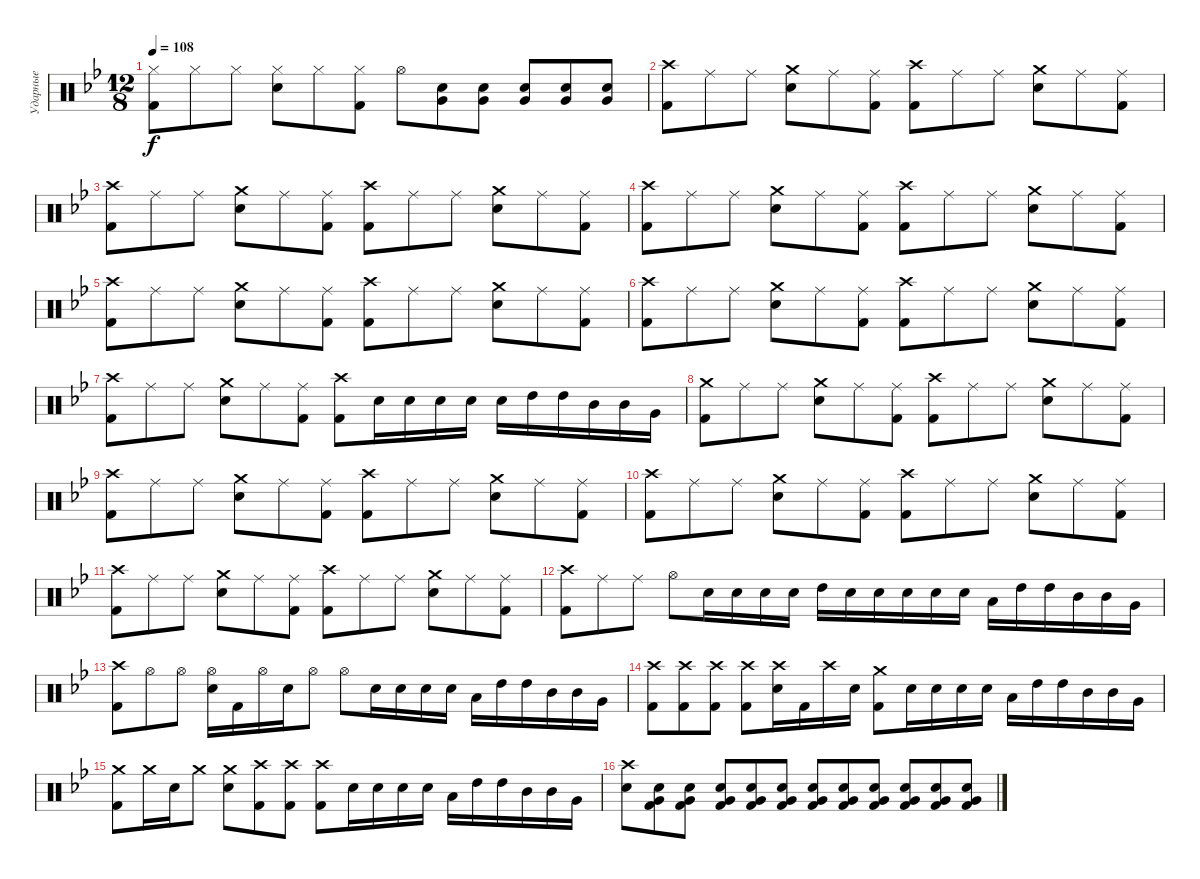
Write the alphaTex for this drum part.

\track ("Ударные" "Ударные") {instrument percussion}
\staff {score}
\articulation defaults
\ts (12 8)
\tempo 108
\clef neutral
\ks gminor
("Hi-Hat (closed)" "Kick (hit) 2").8{dy f} "Hi-Hat (closed)".8 "Hi-Hat (closed)".8 ("Hi-Hat (closed)" "Electric Snare (hit)").8 "Hi-Hat (closed)".8 ("Hi-Hat (closed)" "Kick (hit) 2").8 "Hi-Hat (open)".8 ("Electric Snare (hit)" "Very Low Tom (hit)").8 ("Electric Snare (hit)" "Very Low Tom (hit)").8 ("Electric Snare (hit)" "Very Low Tom (hit)").8 ("Electric Snare (hit)" "Very Low Tom (hit)").8 ("Electric Snare (hit)" "Very Low Tom (hit)").8 |
("Crash high (hit)" "Kick (hit) 2").8 "Ride (middle)".8 "Ride (middle)".8 ("Crash medium (hit)" "Electric Snare (hit)").8 "Ride (middle)".8 ("Ride (middle)" "Kick (hit) 2").8 ("Crash high (hit)" "Kick (hit) 2").8 "Ride (middle)".8 "Ride (middle)".8 ("Crash medium (hit)" "Electric Snare (hit)").8 "Ride (middle)".8 ("Ride (middle)" "Kick (hit) 2").8 |
("Crash high (hit)" "Kick (hit) 2").8 "Ride (middle)".8 "Ride (middle)".8 ("Crash medium (hit)" "Electric Snare (hit)").8 "Ride (middle)".8 ("Ride (middle)" "Kick (hit) 2").8 ("Crash high (hit)" "Kick (hit) 2").8 "Ride (middle)".8 "Ride (middle)".8 ("Crash medium (hit)" "Electric Snare (hit)").8 "Ride (middle)".8 ("Ride (middle)" "Kick (hit) 2").8 |
("Crash high (hit)" "Kick (hit) 2").8 "Ride (middle)".8 "Ride (middle)".8 ("Crash medium (hit)" "Electric Snare (hit)").8 "Ride (middle)".8 ("Ride (middle)" "Kick (hit) 2").8 ("Crash high (hit)" "Kick (hit) 2").8 "Ride (middle)".8 "Ride (middle)".8 ("Crash medium (hit)" "Electric Snare (hit)").8 "Ride (middle)".8 ("Ride (middle)" "Kick (hit) 2").8 |
("Crash high (hit)" "Kick (hit) 2").8 "Ride (middle)".8 "Ride (middle)".8 ("Crash medium (hit)" "Electric Snare (hit)").8 "Ride (middle)".8 ("Ride (middle)" "Kick (hit) 2").8 ("Crash high (hit)" "Kick (hit) 2").8 "Ride (middle)".8 "Ride (middle)".8 ("Crash medium (hit)" "Electric Snare (hit)").8 "Ride (middle)".8 ("Ride (middle)" "Kick (hit) 2").8 |
("Crash high (hit)" "Kick (hit) 2").8 "Ride (middle)".8 "Ride (middle)".8 ("Crash medium (hit)" "Electric Snare (hit)").8 "Ride (middle)".8 ("Ride (middle)" "Kick (hit) 2").8 ("Crash high (hit)" "Kick (hit) 2").8 "Ride (middle)".8 "Ride (middle)".8 ("Crash medium (hit)" "Electric Snare (hit)").8 "Ride (middle)".8 ("Ride (middle)" "Kick (hit) 2").8 |
("Crash high (hit)" "Kick (hit) 2").8 "Ride (middle)".8 "Ride (middle)".8 ("Crash medium (hit)" "Electric Snare (hit)").8 "Ride (middle)".8 ("Ride (middle)" "Kick (hit) 2").8 ("Crash high (hit)" "Kick (hit) 2").8 "Electric Snare (hit)".16 "Electric Snare (hit)".16 "Electric Snare (hit)".16 "Electric Snare (hit)".16 "Electric Snare (hit)".16 "High Tom (hit)".16 "High Tom (hit)".16 "Mid Tom (hit)".16 "Mid Tom (hit)".16 "Very Low Tom (hit)".16 |
("Crash medium (hit)" "Kick (hit) 2").8 "Ride (middle)".8 "Ride (middle)".8 ("Crash medium (hit)" "Electric Snare (hit)").8 "Ride (middle)".8 ("Ride (middle)" "Kick (hit) 2").8 ("Crash high (hit)" "Kick (hit) 2").8 "Ride (middle)".8 "Ride (middle)".8 ("Crash medium (hit)" "Electric Snare (hit)").8 "Ride (middle)".8 ("Ride (middle)" "Kick (hit) 2").8 |
("Crash high (hit)" "Kick (hit) 2").8 "Ride (middle)".8 "Ride (middle)".8 ("Crash medium (hit)" "Electric Snare (hit)").8 "Ride (middle)".8 ("Ride (middle)" "Kick (hit) 2").8 ("Crash high (hit)" "Kick (hit) 2").8 "Ride (middle)".8 "Ride (middle)".8 ("Crash medium (hit)" "Electric Snare (hit)").8 "Ride (middle)".8 ("Ride (middle)" "Kick (hit) 2").8 |
("Crash high (hit)" "Kick (hit) 2").8 "Ride (middle)".8 "Ride (middle)".8 ("Crash medium (hit)" "Electric Snare (hit)").8 "Ride (middle)".8 ("Ride (middle)" "Kick (hit) 2").8 ("Crash high (hit)" "Kick (hit) 2").8 "Ride (middle)".8 "Ride (middle)".8 ("Crash medium (hit)" "Electric Snare (hit)").8 "Ride (middle)".8 ("Ride (middle)" "Kick (hit) 2").8 |
("Crash high (hit)" "Kick (hit) 2").8 "Ride (middle)".8 "Ride (middle)".8 ("Crash medium (hit)" "Electric Snare (hit)").8 "Ride (middle)".8 ("Ride (middle)" "Kick (hit) 2").8 ("Crash high (hit)" "Kick (hit) 2").8 "Ride (middle)".8 "Ride (middle)".8 ("Crash medium (hit)" "Electric Snare (hit)").8 "Ride (middle)".8 ("Ride (middle)" "Kick (hit) 2").8 |
("Crash high (hit)" "Kick (hit) 2").8 "Ride (middle)".8 "Ride (middle)".8 "Hi-Hat (open)".8 "Electric Snare (hit)".16 "Electric Snare (hit)".16 "Electric Snare (hit)".16 "Electric Snare (hit)".16 "High Tom (hit)".16 "Electric Snare (hit)".16 "Electric Snare (hit)".16 "Electric Snare (hit)".16 "Electric Snare (hit)".16 "Electric Snare (hit)".16 "Low Tom (hit)".16 "High Tom (hit)".16 "High Tom (hit)".16 "Mid Tom (hit)".16 "Mid Tom (hit)".16 "Very Low Tom (hit)".16 |
("Crash high (hit)" "Kick (hit) 2").8 "Hi-Hat (open)".8 "Hi-Hat (open)".8 ("Hi-Hat (open)" "Electric Snare (hit)").16 "Kick (hit) 2".16 "Hi-Hat (open)".16 "Electric Snare (hit)".16 "Hi-Hat (open)".8 "Hi-Hat (open)".8 "Electric Snare (hit)".16 "Electric Snare (hit)".16 "Electric Snare (hit)".16 "Electric Snare (hit)".16 "Low Tom (hit)".16 "High Tom (hit)".16 "High Tom (hit)".16 "Mid Tom (hit)".16 "Mid Tom (hit)".16 "Very Low Tom (hit)".16 |
("Crash high (hit)" "Kick (hit) 2").8 ("Crash high (hit)" "Kick (hit) 2").8 ("Crash high (hit)" "Kick (hit) 2").8 ("Crash high (hit)" "Kick (hit) 2").8 ("Crash high (hit)" "Electric Snare (hit)").16 "Kick (hit) 2".16 "Crash high (hit)".16 "Electric Snare (hit)".16 ("Crash medium (hit)" "Kick (hit) 2").8 "Electric Snare (hit)".16 "Electric Snare (hit)".16 "Electric Snare (hit)".16 "Electric Snare (hit)".16 "Low Tom (hit)".16 "High Tom (hit)".16 "High Tom (hit)".16 "Mid Tom (hit)".16 "Mid Tom (hit)".16 "Very Low Tom (hit)".16 |
("Crash medium (hit)" "Kick (hit) 2").8 "Crash medium (hit)".16 "Electric Snare (hit)".16 "Crash medium (hit)".8 ("Crash medium (hit)" "Electric Snare (hit)").8 ("Crash high (hit)" "Kick (hit) 2").8 ("Crash high (hit)" "Kick (hit) 2").8 ("Crash high (hit)" "Kick (hit) 2").8 "Electric Snare (hit)".16 "Electric Snare (hit)".16 "Electric Snare (hit)".16 "Electric Snare (hit)".16 "Low Tom (hit)".16 "High Tom (hit)".16 "High Tom (hit)".16 "Mid Tom (hit)".16 "Mid Tom (hit)".16 "Very Low Tom (hit)".16 |
("Crash high (hit)" "Electric Snare (hit)").8 ("Electric Snare (hit)" "Very Low Tom (hit)" "Kick (hit) 2").8 ("Electric Snare (hit)" "Very Low Tom (hit)" "Kick (hit) 2").8 ("Electric Snare (hit)" "Very Low Tom (hit)" "Kick (hit) 2").8 ("Electric Snare (hit)" "Very Low Tom (hit)" "Kick (hit) 2").8 ("Electric Snare (hit)" "Very Low Tom (hit)" "Kick (hit) 2").8 ("Electric Snare (hit)" "Very Low Tom (hit)" "Kick (hit) 2").8 ("Electric Snare (hit)" "Very Low Tom (hit)" "Kick (hit) 2").8 ("Electric Snare (hit)" "Very Low Tom (hit)" "Kick (hit) 2").8 ("Electric Snare (hit)" "Very Low Tom (hit)" "Kick (hit) 2").8 ("Electric Snare (hit)" "Very Low Tom (hit)" "Kick (hit) 2").8 ("Electric Snare (hit)" "Very Low Tom (hit)" "Kick (hit) 2").8
